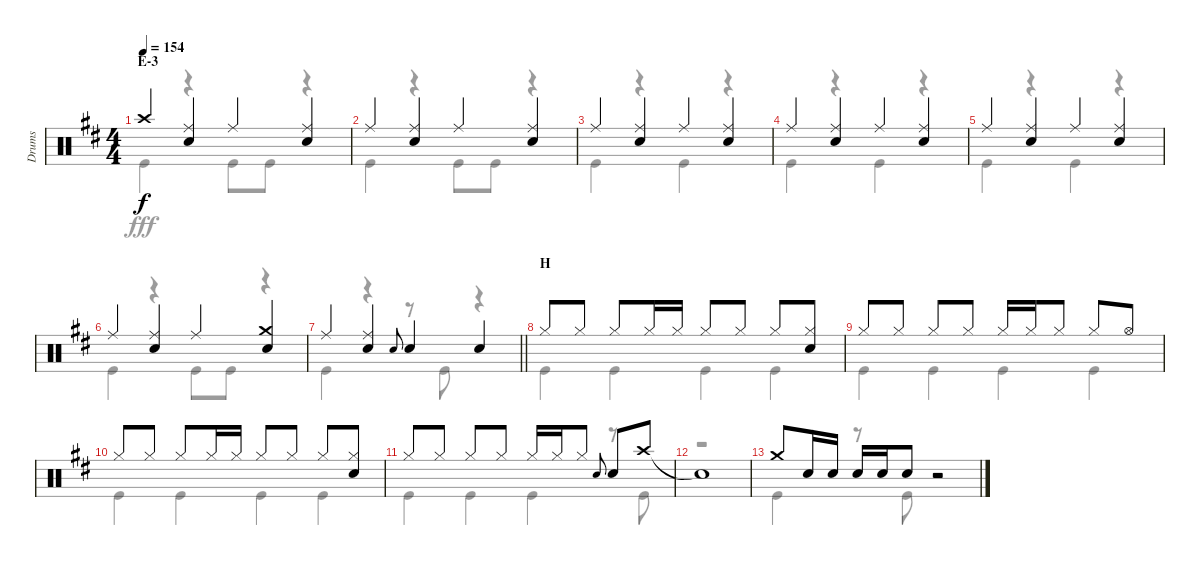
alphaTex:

\track ("Drums" "Drums") {instrument percussion}
\staff {score}
\articulation defaults
\voice
\ts (4 4)
\section ("" "E-3")
\tempo 154
\clef neutral
\ks d "Crash high (hit)".4{dy f}
("Ride (middle)" "Snare (hit) 2").4 "Ride (middle)".4 ("Ride (middle)" "Snare (hit) 2").4 |
"Ride (middle)".4 ("Ride (middle)" "Snare (hit) 2").4 "Ride (middle)".4 ("Ride (middle)" "Snare (hit) 2").4 |
"Ride (middle)".4 ("Ride (middle)" "Snare (hit) 2").4 "Ride (middle)".4 ("Ride (middle)" "Snare (hit) 2").4 |
"Ride (middle)".4 ("Ride (middle)" "Snare (hit) 2").4 "Ride (middle)".4 ("Ride (middle)" "Snare (hit) 2").4 |
"Ride (middle)".4 ("Ride (middle)" "Snare (hit) 2").4 "Ride (middle)".4 ("Ride (middle)" "Snare (hit) 2").4 |
"Ride (middle)".4 ("Ride (middle)" "Snare (hit) 2").4 "Ride (middle)".4 ("Crash medium (hit)" "Snare (hit) 2").4 |
\barLineRight lightlight "Ride (middle)".4
("Ride (middle)" "Snare (hit) 2").4 "Snare (hit) 2".8{gr onbeat} "Snare (hit) 2".4 "Snare (hit) 2".4 |
\section ("" "H")
"Hi-Hat (closed)".8 "Hi-Hat (closed)".8 "Hi-Hat (closed)".8 "Hi-Hat (closed)".16 "Hi-Hat (closed)".16 "Hi-Hat (closed)".8 "Hi-Hat (closed)".8 "Hi-Hat (closed)".8 ("Hi-Hat (closed)" "Snare (hit) 2").8 |
"Hi-Hat (closed)".8 "Hi-Hat (closed)".8 "Hi-Hat (closed)".8 "Hi-Hat (closed)".8 "Hi-Hat (closed)".16 "Hi-Hat (closed)".16 "Hi-Hat (closed)".8 "Hi-Hat (closed)".8 "Hi-Hat (open)".8 |
"Hi-Hat (closed)".8 "Hi-Hat (closed)".8 "Hi-Hat (closed)".8 "Hi-Hat (closed)".16 "Hi-Hat (closed)".16 "Hi-Hat (closed)".8 "Hi-Hat (closed)".8 "Hi-Hat (closed)".8 ("Hi-Hat (closed)" "Snare (hit) 2").8 |
"Hi-Hat (closed)".8 "Hi-Hat (closed)".8 "Hi-Hat (closed)".8 "Hi-Hat (closed)".8 "Hi-Hat (closed)".16 "Hi-Hat (closed)".16 "Hi-Hat (closed)".8 "Snare (hit) 2".8{gr onbeat} "Snare (hit) 2".8 "Crash high (hit)".8 |
"Snare (hit)"{t}.1 |
"Crash medium (hit)".8 "Snare (hit) 2".16 "Snare (hit) 2".16 "Snare (hit) 2".16 "Snare (hit) 2".16 "Snare (hit) 2".8 r.2
\voice
\clef neutral
\ottava regular
\simile none
\ks d "Kick (hit)".4{dy fff}
r.4 "Kick (hit)".8 "Kick (hit)".8 r.4 |
"Kick (hit)".4 r.4 "Kick (hit)".8 "Kick (hit)".8 r.4 |
"Kick (hit)".4 r.4 "Kick (hit)".4 r.4 |
"Kick (hit)".4 r.4 "Kick (hit)".4 r.4 |
"Kick (hit)".4 r.4 "Kick (hit)".4 r.4 |
"Kick (hit)".4 r.4 "Kick (hit)".8 "Kick (hit)".8 r.4 |
\barLineRight lightlight "Kick (hit)".4
r.4 r.8 "Kick (hit)".8 r.4 |
"Kick (hit)".4 "Kick (hit)".4 "Kick (hit)".4 "Kick (hit)".4 |
"Kick (hit)".4 "Kick (hit)".4 "Kick (hit)".4 "Kick (hit)".4 |
"Kick (hit)".4 "Kick (hit)".4 "Kick (hit)".4 "Kick (hit)".4 |
"Kick (hit)".4 "Kick (hit)".4 "Kick (hit)".4 r.8 "Kick (hit)".8 |
r.1 |
"Kick (hit)".4 r.8 "Kick (hit)".8 r.2
